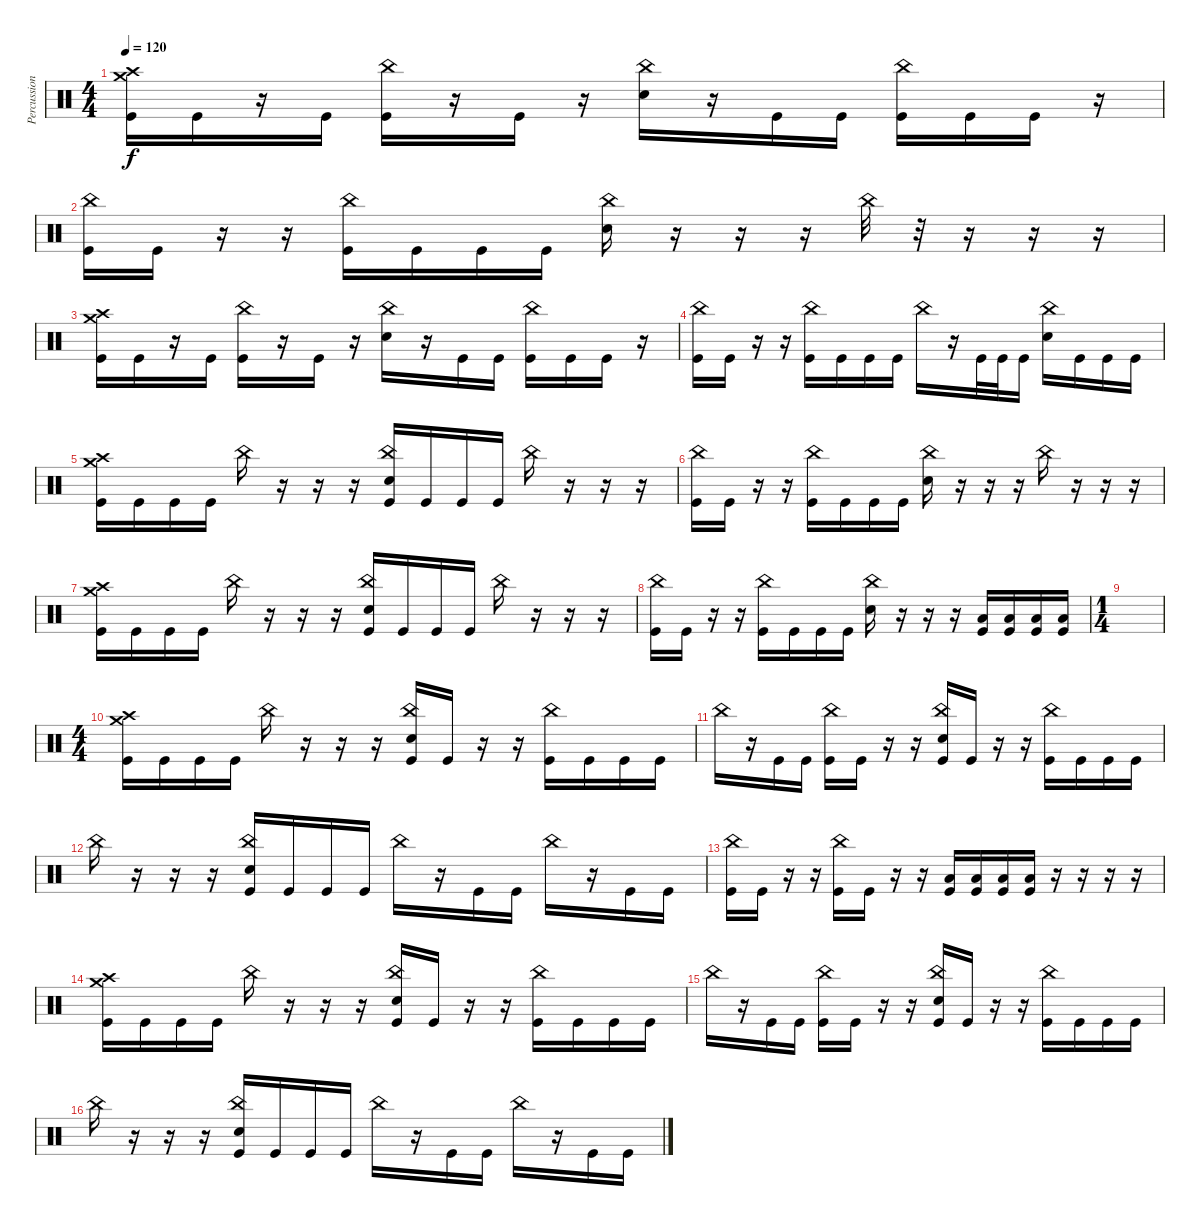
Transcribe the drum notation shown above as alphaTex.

\track ("Percussion" "Percussion") {instrument percussion}
\staff {score}
\articulation defaults
\ts (4 4)
\tempo 120
\clef neutral
\ks c
("Crash medium (hit)" "Crash high (hit)" "Kick (hit)").16{dy f} "Kick (hit)".16 r.16 "Kick (hit)".16 ("China (hit)" "Kick (hit)").16 r.16 "Kick (hit)".16 r.16 ("China (hit)" "Snare (hit) 2").16 r.16 "Kick (hit)".16 "Kick (hit)".16 ("China (hit)" "Kick (hit)").16 "Kick (hit)".16 "Kick (hit)".16 r.16 |
("China (hit)" "Kick (hit)").16 "Kick (hit)".16 r.16 r.16 ("China (hit)" "Kick (hit)").16 "Kick (hit)".16 "Kick (hit)".16 "Kick (hit)".16 ("China (hit)" "Snare (hit) 2").16 r.16 r.16 r.16 "China (hit)".32 r.32 r.16 r.16 r.16 |
("Crash medium (hit)" "Crash high (hit)" "Kick (hit)").16 "Kick (hit)".16 r.16 "Kick (hit)".16 ("China (hit)" "Kick (hit)").16 r.16 "Kick (hit)".16 r.16 ("China (hit)" "Snare (hit) 2").16 r.16 "Kick (hit)".16 "Kick (hit)".16 ("China (hit)" "Kick (hit)").16 "Kick (hit)".16 "Kick (hit)".16 r.16 |
("China (hit)" "Kick (hit)").16 "Kick (hit)".16 r.16 r.16 ("China (hit)" "Kick (hit)").16 "Kick (hit)".16 "Kick (hit)".16 "Kick (hit)".16 "China (hit)".16 r.16 "Kick (hit)".32 "Kick (hit)".32 "Kick (hit)".16 ("China (hit)" "Snare (hit) 2").16 "Kick (hit)".16 "Kick (hit)".16 "Kick (hit)".16 |
("Crash medium (hit)" "Crash high (hit)" "Kick (hit)").16 "Kick (hit)".16 "Kick (hit)".16 "Kick (hit)".16 "China (hit)".16 r.16 r.16 r.16 ("China (hit)" "Snare (hit) 2" "Kick (hit)").16 "Kick (hit)".16 "Kick (hit)".16 "Kick (hit)".16 "China (hit)".16 r.16 r.16 r.16 |
("China (hit)" "Kick (hit)").16 "Kick (hit)".16 r.16 r.16 ("China (hit)" "Kick (hit)").16 "Kick (hit)".16 "Kick (hit)".16 "Kick (hit)".16 ("Snare (hit) 2" "China (hit)").16 r.16 r.16 r.16 "China (hit)".16 r.16 r.16 r.16 |
("Crash medium (hit)" "Crash high (hit)" "Kick (hit)").16 "Kick (hit)".16 "Kick (hit)".16 "Kick (hit)".16 "China (hit)".16 r.16 r.16 r.16 ("China (hit)" "Snare (hit) 2" "Kick (hit)").16 "Kick (hit)".16 "Kick (hit)".16 "Kick (hit)".16 "China (hit)".16 r.16 r.16 r.16 |
("China (hit)" "Kick (hit)").16 "Kick (hit)".16 r.16 r.16 ("China (hit)" "Kick (hit)").16 "Kick (hit)".16 "Kick (hit)".16 "Kick (hit)".16 ("China (hit)" "Snare (hit) 2").16 r.16 r.16 r.16 ("Low Tom (hit)" "Kick (hit)").16 ("Low Tom (hit)" "Kick (hit)").16 ("Low Tom (hit)" "Kick (hit)").16 ("Low Tom (hit)" "Kick (hit)").16 |
\ts (1 4)
|
\ts (4 4)
("Crash medium (hit)" "Crash high (hit)" "Kick (hit)").16 "Kick (hit)".16 "Kick (hit)".16 "Kick (hit)".16 "China (hit)".16 r.16 r.16 r.16 ("China (hit)" "Snare (hit) 2" "Kick (hit)").16 "Kick (hit)".16 r.16 r.16 ("China (hit)" "Kick (hit)").16 "Kick (hit)".16 "Kick (hit)".16 "Kick (hit)".16 |
"China (hit)".16 r.16 "Kick (hit)".16 "Kick (hit)".16 ("China (hit)" "Kick (hit)").16 "Kick (hit)".16 r.16 r.16 ("China (hit)" "Snare (hit) 2" "Kick (hit)").16 "Kick (hit)".16 r.16 r.16 ("China (hit)" "Kick (hit)").16 "Kick (hit)".16 "Kick (hit)".16 "Kick (hit)".16 |
"China (hit)".16 r.16 r.16 r.16 ("China (hit)" "Snare (hit) 2" "Kick (hit)").16 "Kick (hit)".16 "Kick (hit)".16 "Kick (hit)".16 "China (hit)".16 r.16 "Kick (hit)".16 "Kick (hit)".16 "China (hit)".16 r.16 "Kick (hit)".16 "Kick (hit)".16 |
("China (hit)" "Kick (hit)").16 "Kick (hit)".16 r.16 r.16 ("China (hit)" "Kick (hit)").16 "Kick (hit)".16 r.16 r.16 ("Low Tom (hit)" "Kick (hit)").16 ("Low Tom (hit)" "Kick (hit)").16 ("Low Tom (hit)" "Kick (hit)").16 ("Low Tom (hit)" "Kick (hit)").16 r.16 r.16 r.16 r.16 |
("Crash medium (hit)" "Crash high (hit)" "Kick (hit)").16 "Kick (hit)".16 "Kick (hit)".16 "Kick (hit)".16 "China (hit)".16 r.16 r.16 r.16 ("China (hit)" "Snare (hit) 2" "Kick (hit)").16 "Kick (hit)".16 r.16 r.16 ("China (hit)" "Kick (hit)").16 "Kick (hit)".16 "Kick (hit)".16 "Kick (hit)".16 |
"China (hit)".16 r.16 "Kick (hit)".16 "Kick (hit)".16 ("China (hit)" "Kick (hit)").16 "Kick (hit)".16 r.16 r.16 ("China (hit)" "Snare (hit) 2" "Kick (hit)").16 "Kick (hit)".16 r.16 r.16 ("China (hit)" "Kick (hit)").16 "Kick (hit)".16 "Kick (hit)".16 "Kick (hit)".16 |
"China (hit)".16 r.16 r.16 r.16 ("China (hit)" "Snare (hit) 2" "Kick (hit)").16 "Kick (hit)".16 "Kick (hit)".16 "Kick (hit)".16 "China (hit)".16 r.16 "Kick (hit)".16 "Kick (hit)".16 "China (hit)".16 r.16 "Kick (hit)".16 "Kick (hit)".16
